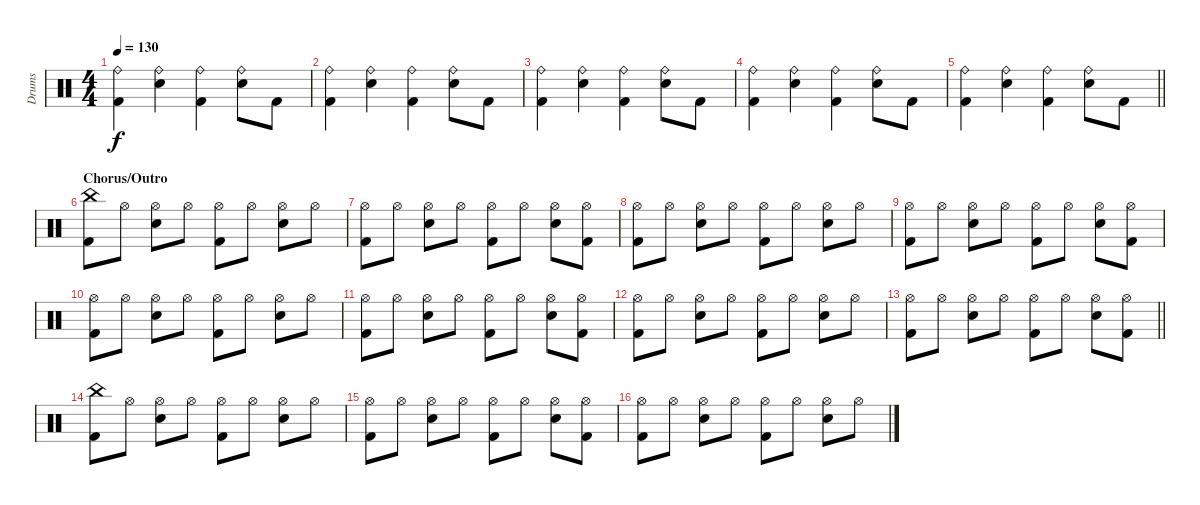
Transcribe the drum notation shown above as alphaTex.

\track ("Drums" "Drums") {instrument percussion}
\staff {score}
\articulation defaults
\ts (4 4)
\tempo 130
\clef neutral
\ks c
("Ride (bell)" "Kick (hit) 2").4{dy f} ("Ride (bell)" "Snare (hit) 2").4 ("Ride (bell)" "Kick (hit) 2").4 ("Ride (bell)" "Snare (hit) 2").8 "Kick (hit) 2".8 |
("Ride (bell)" "Kick (hit) 2").4 ("Ride (bell)" "Snare (hit) 2").4 ("Ride (bell)" "Kick (hit) 2").4 ("Ride (bell)" "Snare (hit) 2").8 "Kick (hit) 2".8 |
("Ride (bell)" "Kick (hit) 2").4 ("Ride (bell)" "Snare (hit) 2").4 ("Ride (bell)" "Kick (hit) 2").4 ("Ride (bell)" "Snare (hit) 2").8 "Kick (hit) 2".8 |
("Ride (bell)" "Kick (hit) 2").4 ("Ride (bell)" "Snare (hit) 2").4 ("Ride (bell)" "Kick (hit) 2").4 ("Ride (bell)" "Snare (hit) 2").8 "Kick (hit) 2".8 |
\barLineRight lightlight
("Ride (bell)" "Kick (hit) 2").4 ("Ride (bell)" "Snare (hit) 2").4 ("Ride (bell)" "Kick (hit) 2").4 ("Ride (bell)" "Snare (hit) 2").8 "Kick (hit) 2".8 |
\section ("" "Chorus/Outro")
("China (hit)" "Kick (hit) 2").8 "Hi-Hat (open)".8 ("Hi-Hat (open)" "Snare (hit) 2").8 "Hi-Hat (open)".8 ("Hi-Hat (open)" "Kick (hit) 2").8 "Hi-Hat (open)".8 ("Hi-Hat (open)" "Snare (hit) 2").8 "Hi-Hat (open)".8 |
("Hi-Hat (open)" "Kick (hit) 2").8 "Hi-Hat (open)".8 ("Hi-Hat (open)" "Snare (hit) 2").8 "Hi-Hat (open)".8 ("Hi-Hat (open)" "Kick (hit) 2").8 "Hi-Hat (open)".8 ("Hi-Hat (open)" "Snare (hit) 2").8 ("Hi-Hat (open)" "Kick (hit) 2").8 |
("Hi-Hat (open)" "Kick (hit) 2").8 "Hi-Hat (open)".8 ("Hi-Hat (open)" "Snare (hit) 2").8 "Hi-Hat (open)".8 ("Hi-Hat (open)" "Kick (hit) 2").8 "Hi-Hat (open)".8 ("Hi-Hat (open)" "Snare (hit) 2").8 "Hi-Hat (open)".8 |
("Hi-Hat (open)" "Kick (hit) 2").8 "Hi-Hat (open)".8 ("Hi-Hat (open)" "Snare (hit) 2").8 "Hi-Hat (open)".8 ("Hi-Hat (open)" "Kick (hit) 2").8 "Hi-Hat (open)".8 ("Hi-Hat (open)" "Snare (hit) 2").8 ("Hi-Hat (open)" "Kick (hit) 2").8 |
("Hi-Hat (open)" "Kick (hit) 2").8 "Hi-Hat (open)".8 ("Hi-Hat (open)" "Snare (hit) 2").8 "Hi-Hat (open)".8 ("Hi-Hat (open)" "Kick (hit) 2").8 "Hi-Hat (open)".8 ("Hi-Hat (open)" "Snare (hit) 2").8 "Hi-Hat (open)".8 |
("Hi-Hat (open)" "Kick (hit) 2").8 "Hi-Hat (open)".8 ("Hi-Hat (open)" "Snare (hit) 2").8 "Hi-Hat (open)".8 ("Hi-Hat (open)" "Kick (hit) 2").8 "Hi-Hat (open)".8 ("Hi-Hat (open)" "Snare (hit) 2").8 ("Hi-Hat (open)" "Kick (hit) 2").8 |
("Hi-Hat (open)" "Kick (hit) 2").8 "Hi-Hat (open)".8 ("Hi-Hat (open)" "Snare (hit) 2").8 "Hi-Hat (open)".8 ("Hi-Hat (open)" "Kick (hit) 2").8 "Hi-Hat (open)".8 ("Hi-Hat (open)" "Snare (hit) 2").8 "Hi-Hat (open)".8 |
\barLineRight lightlight
("Hi-Hat (open)" "Kick (hit) 2").8 "Hi-Hat (open)".8 ("Hi-Hat (open)" "Snare (hit) 2").8 "Hi-Hat (open)".8 ("Hi-Hat (open)" "Kick (hit) 2").8 "Hi-Hat (open)".8 ("Hi-Hat (open)" "Snare (hit) 2").8 ("Hi-Hat (open)" "Kick (hit) 2").8 |
("China (hit)" "Kick (hit) 2").8 "Hi-Hat (open)".8 ("Hi-Hat (open)" "Snare (hit) 2").8 "Hi-Hat (open)".8 ("Hi-Hat (open)" "Kick (hit) 2").8 "Hi-Hat (open)".8 ("Hi-Hat (open)" "Snare (hit) 2").8 "Hi-Hat (open)".8 |
("Hi-Hat (open)" "Kick (hit) 2").8 "Hi-Hat (open)".8 ("Hi-Hat (open)" "Snare (hit) 2").8 "Hi-Hat (open)".8 ("Hi-Hat (open)" "Kick (hit) 2").8 "Hi-Hat (open)".8 ("Hi-Hat (open)" "Snare (hit) 2").8 ("Hi-Hat (open)" "Kick (hit) 2").8 |
("Hi-Hat (open)" "Kick (hit) 2").8 "Hi-Hat (open)".8 ("Hi-Hat (open)" "Snare (hit) 2").8 "Hi-Hat (open)".8 ("Hi-Hat (open)" "Kick (hit) 2").8 "Hi-Hat (open)".8 ("Hi-Hat (open)" "Snare (hit) 2").8 "Hi-Hat (open)".8
